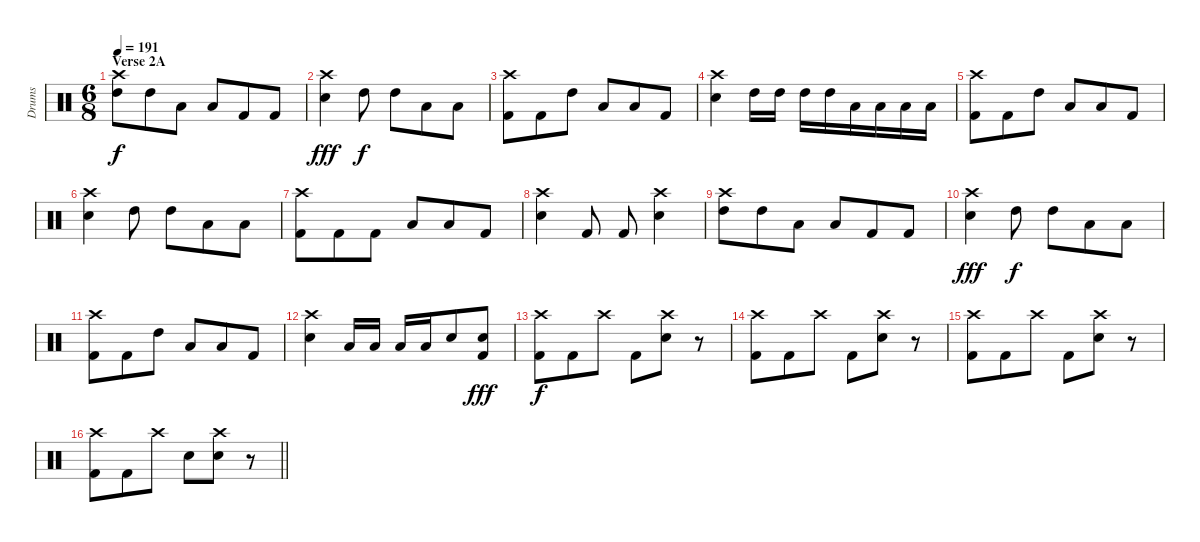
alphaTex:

\track ("Drums" "Drums") {instrument percussion}
\staff {score}
\articulation defaults
\ts (6 8)
\section ("" "Verse 2A")
\tempo 191
\clef neutral
\ks c
("Crash high (hit)" "High Tom (hit)").8{dy f} "High Tom (hit)".8 "Low Tom (hit)".8 "Low Floor Tom (hit)".8 "Kick (hit) 2".8 "Kick (hit) 2".8 |
("Crash high (hit)" "Snare (hit) 2").4{dy fff} "High Tom (hit)".8{dy f} "High Tom (hit)".8 "Low Tom (hit)".8 "Low Tom (hit)".8 |
("Crash high (hit)" "Kick (hit) 2").8 "Kick (hit) 2".8 "High Tom (hit)".8 "Low Tom (hit)".8 "Low Floor Tom (hit)".8 "Kick (hit) 2".8 |
("Crash high (hit)" "Snare (hit) 2").4 "High Tom (hit)".16 "High Tom (hit)".16 "High Tom (hit)".16 "High Tom (hit)".16 "Low Tom (hit)".16 "Low Tom (hit)".16 "Low Tom (hit)".16 "Low Tom (hit)".16 |
("Crash high (hit)" "Kick (hit) 2").8 "Kick (hit) 2".8 "High Tom (hit)".8 "Low Tom (hit)".8 "Low Floor Tom (hit)".8 "Kick (hit) 2".8 |
("Crash high (hit)" "Snare (hit) 2").4 "High Tom (hit)".8 "High Tom (hit)".8 "Low Tom (hit)".8 "Low Floor Tom (hit)".8 |
("Crash high (hit)" "Kick (hit) 2").8 "Kick (hit) 2".8 "Kick (hit) 2".8 "Low Tom (hit)".8 "Low Floor Tom (hit)".8 "Kick (hit) 2".8 |
("Crash high (hit)" "Snare (hit) 2").4 "Kick (hit) 2".8 "Kick (hit) 2".8 ("Crash high (hit)" "Snare (hit) 2").4 |
("Crash high (hit)" "High Tom (hit)").8 "High Tom (hit)".8 "Low Tom (hit)".8 "Low Floor Tom (hit)".8 "Kick (hit) 2".8 "Kick (hit) 2".8 |
("Crash high (hit)" "Snare (hit) 2").4{dy fff} "High Tom (hit)".8{dy f} "High Tom (hit)".8 "Low Tom (hit)".8 "Low Tom (hit)".8 |
("Crash high (hit)" "Kick (hit) 2").8 "Kick (hit) 2".8 "High Tom (hit)".8 "Low Tom (hit)".8 "Low Floor Tom (hit)".8 "Kick (hit) 2".8 |
("Crash high (hit)" "Snare (hit) 2").4 "Low Tom (hit)".16 "Low Tom (hit)".16 "Low Floor Tom (hit)".16 "Low Floor Tom (hit)".16 "Snare (hit) 2".8 ("Snare (hit) 2" "Kick (hit) 2").8{dy fff} |
("Crash high (hit)" "Kick (hit) 2").8{dy f} "Kick (hit) 2".8 "Crash high (hit)".8 "Kick (hit) 2".8 ("Crash high (hit)" "Snare (hit) 2").8 r.8 |
("Crash high (hit)" "Kick (hit) 2").8 "Kick (hit) 2".8 "Crash high (hit)".8 "Kick (hit) 2".8 ("Crash high (hit)" "Snare (hit) 2").8 r.8 |
("Crash high (hit)" "Kick (hit) 2").8 "Kick (hit) 2".8 "Crash high (hit)".8 "Kick (hit) 2".8 ("Crash high (hit)" "Snare (hit) 2").8 r.8 |
\barLineRight lightlight
("Crash high (hit)" "Kick (hit) 2").8 "Kick (hit) 2".8 "Crash high (hit)".8 "Snare (hit) 2".8 ("Crash high (hit)" "Snare (hit) 2").8 r.8
